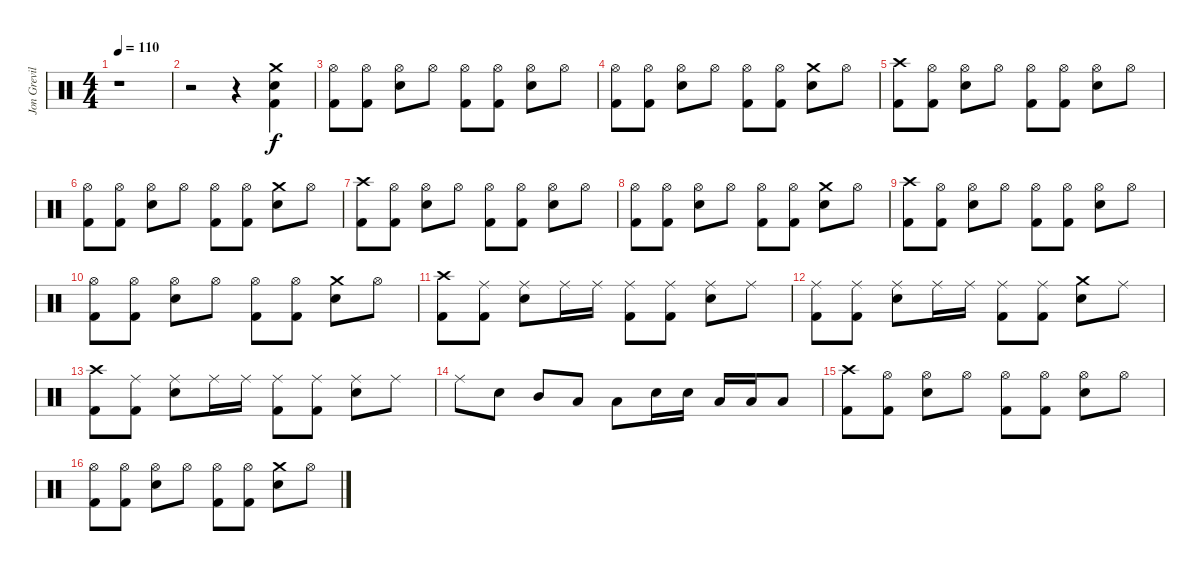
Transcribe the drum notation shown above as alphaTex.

\track ("Jon Greville (Drums)" "Jon Grevil") {instrument percussion}
\staff {score}
\articulation defaults
\ts (4 4)
\tempo 110
\clef neutral
\ks c
r.1{dy f} |
r.2 r.4 ("Crash medium (hit)" "Electric Snare (hit)" "Kick (hit) 2").4 |
("Hi-Hat (open)" "Kick (hit) 2").8 ("Hi-Hat (open)" "Kick (hit) 2").8 ("Hi-Hat (open)" "Electric Snare (hit)").8 "Hi-Hat (open)".8 ("Hi-Hat (open)" "Kick (hit) 2").8 ("Hi-Hat (open)" "Kick (hit) 2").8 ("Hi-Hat (open)" "Electric Snare (hit)").8 "Hi-Hat (open)".8 |
("Hi-Hat (open)" "Kick (hit) 2").8 ("Hi-Hat (open)" "Kick (hit) 2").8 ("Hi-Hat (open)" "Electric Snare (hit)").8 "Hi-Hat (open)".8 ("Hi-Hat (open)" "Kick (hit) 2").8 ("Hi-Hat (open)" "Kick (hit) 2").8 ("Crash medium (hit)" "Electric Snare (hit)").8 "Hi-Hat (open)".8 |
("Crash high (hit)" "Kick (hit) 2").8 ("Hi-Hat (open)" "Kick (hit) 2").8 ("Hi-Hat (open)" "Electric Snare (hit)").8 "Hi-Hat (open)".8 ("Hi-Hat (open)" "Kick (hit) 2").8 ("Hi-Hat (open)" "Kick (hit) 2").8 ("Hi-Hat (open)" "Electric Snare (hit)").8 "Hi-Hat (open)".8 |
("Hi-Hat (open)" "Kick (hit) 2").8 ("Hi-Hat (open)" "Kick (hit) 2").8 ("Hi-Hat (open)" "Electric Snare (hit)").8 "Hi-Hat (open)".8 ("Hi-Hat (open)" "Kick (hit) 2").8 ("Hi-Hat (open)" "Kick (hit) 2").8 ("Crash medium (hit)" "Electric Snare (hit)").8 "Hi-Hat (open)".8 |
("Crash high (hit)" "Kick (hit) 2").8 ("Hi-Hat (open)" "Kick (hit) 2").8 ("Hi-Hat (open)" "Electric Snare (hit)").8 "Hi-Hat (open)".8 ("Hi-Hat (open)" "Kick (hit) 2").8 ("Hi-Hat (open)" "Kick (hit) 2").8 ("Hi-Hat (open)" "Electric Snare (hit)").8 "Hi-Hat (open)".8 |
("Hi-Hat (open)" "Kick (hit) 2").8 ("Hi-Hat (open)" "Kick (hit) 2").8 ("Hi-Hat (open)" "Electric Snare (hit)").8 "Hi-Hat (open)".8 ("Hi-Hat (open)" "Kick (hit) 2").8 ("Hi-Hat (open)" "Kick (hit) 2").8 ("Crash medium (hit)" "Electric Snare (hit)").8 "Hi-Hat (open)".8 |
("Crash high (hit)" "Kick (hit) 2").8 ("Hi-Hat (open)" "Kick (hit) 2").8 ("Hi-Hat (open)" "Electric Snare (hit)").8 "Hi-Hat (open)".8 ("Hi-Hat (open)" "Kick (hit) 2").8 ("Hi-Hat (open)" "Kick (hit) 2").8 ("Hi-Hat (open)" "Electric Snare (hit)").8 "Hi-Hat (open)".8 |
("Hi-Hat (open)" "Kick (hit) 2").8 ("Hi-Hat (open)" "Kick (hit) 2").8 ("Hi-Hat (open)" "Electric Snare (hit)").8 "Hi-Hat (open)".8 ("Hi-Hat (open)" "Kick (hit) 2").8 ("Hi-Hat (open)" "Kick (hit) 2").8 ("Crash medium (hit)" "Electric Snare (hit)").8 "Hi-Hat (open)".8 |
("Crash high (hit)" "Kick (hit) 2").8 ("Ride (middle)" "Kick (hit) 2").8 ("Ride (middle)" "Electric Snare (hit)").8 "Ride (middle)".16 "Ride (middle)".16 ("Ride (middle)" "Kick (hit) 2").8 ("Ride (middle)" "Kick (hit) 2").8 ("Ride (middle)" "Electric Snare (hit)").8 "Ride (middle)".8 |
("Ride (middle)" "Kick (hit) 2").8 ("Ride (middle)" "Kick (hit) 2").8 ("Ride (middle)" "Electric Snare (hit)").8 "Ride (middle)".16 "Ride (middle)".16 ("Ride (middle)" "Kick (hit) 2").8 ("Ride (middle)" "Kick (hit) 2").8 ("Crash medium (hit)" "Electric Snare (hit)").8 "Ride (middle)".8 |
("Crash high (hit)" "Kick (hit) 2").8 ("Ride (middle)" "Kick (hit) 2").8 ("Ride (middle)" "Electric Snare (hit)").8 "Ride (middle)".16 "Ride (middle)".16 ("Ride (middle)" "Kick (hit) 2").8 ("Ride (middle)" "Kick (hit) 2").8 ("Ride (middle)" "Electric Snare (hit)").8 "Ride (middle)".8 |
"Ride (middle)".8 "Electric Snare (hit)".8 "Mid Tom (hit)".8 "Low Tom (hit)".8 "Low Floor Tom (hit)".8 "Electric Snare (hit)".16 "Electric Snare (hit)".16 "Low Tom (hit)".16 "Low Tom (hit)".16 "Low Floor Tom (hit)".8 |
("Crash high (hit)" "Kick (hit) 2").8 ("Hi-Hat (open)" "Kick (hit) 2").8 ("Hi-Hat (open)" "Electric Snare (hit)").8 "Hi-Hat (open)".8 ("Hi-Hat (open)" "Kick (hit) 2").8 ("Hi-Hat (open)" "Kick (hit) 2").8 ("Hi-Hat (open)" "Electric Snare (hit)").8 "Hi-Hat (open)".8 |
("Hi-Hat (open)" "Kick (hit) 2").8 ("Hi-Hat (open)" "Kick (hit) 2").8 ("Hi-Hat (open)" "Electric Snare (hit)").8 "Hi-Hat (open)".8 ("Hi-Hat (open)" "Kick (hit) 2").8 ("Hi-Hat (open)" "Kick (hit) 2").8 ("Crash medium (hit)" "Electric Snare (hit)").8 "Hi-Hat (open)".8
